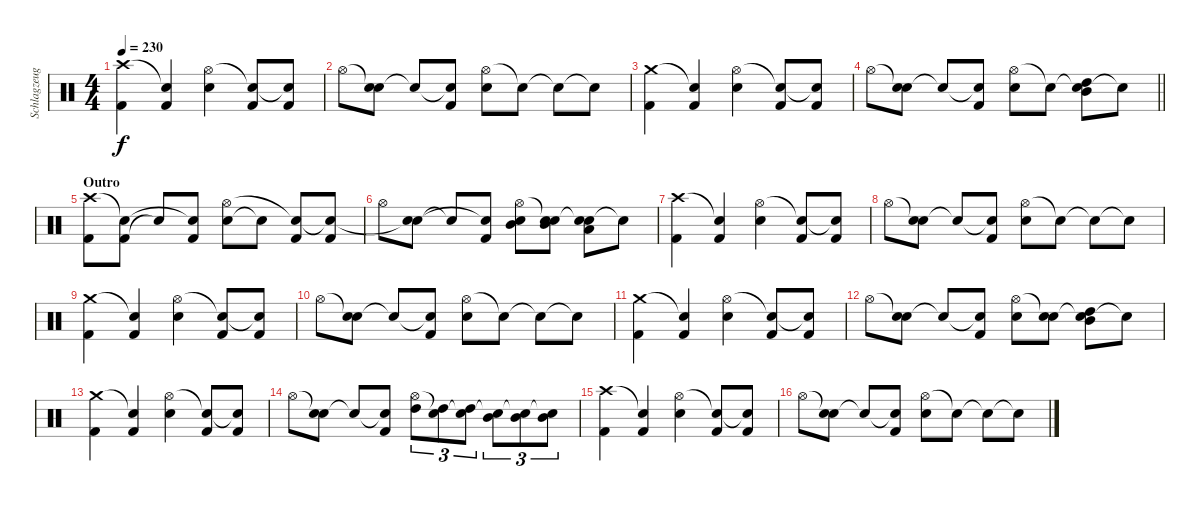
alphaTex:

\track ("Schlagzeug" "Schlagzeug") {instrument percussion}
\staff {score}
\articulation defaults
\ts (4 4)
\tempo 230
\clef neutral
\ks c
("Crash high (hit)" "Kick (hit) 2").4{dy f} ("Snare (hit)"{t} "Kick (hit) 2").4 ("Hi-Hat (open)" "Snare (hit) 2").4 ("Snare (hit)"{t} "Kick (hit) 2").8 ("Snare (hit)"{t} "Kick (hit) 2").8 |
"Hi-Hat (open)".8 ("Snare (hit)"{t} "Snare (hit) 2").8 "Snare (hit)"{t}.8 ("Snare (hit)"{t} "Kick (hit) 2").8 ("Hi-Hat (open)" "Snare (hit) 2").8 "Snare (hit)"{t}.8 "Snare (hit)"{t}.8 "Snare (hit)"{t}.8 |
("Crash medium (hit)" "Kick (hit) 2").4 ("Snare (hit)"{t} "Kick (hit) 2").4 ("Hi-Hat (open)" "Snare (hit) 2").4 ("Snare (hit)"{t} "Kick (hit) 2").8 ("Snare (hit)"{t} "Kick (hit) 2").8 |
\barLineRight lightlight "Hi-Hat (open)".8
("Snare (hit)"{t} "Snare (hit) 2").8 "Snare (hit)"{t}.8 ("Snare (hit)"{t} "Kick (hit) 2").8 ("Hi-Hat (open)" "Snare (hit) 2").8 "Snare (hit)"{t}.8 ("Snare (hit)"{t} "Mid Tom (hit)" "High Tom (hit)").8 "Snare (hit)"{t}.8 |
\section ("" "Outro")
("Kick (hit) 2" "Crash high (hit)").8 ("Kick (hit) 2" "Snare (hit)"{t}).8 "Snare (hit)"{t}.8 ("Kick (hit) 2" "Snare (hit)"{t}).8 ("Snare (hit) 2" "Hi-Hat (open)").8 "Snare (hit)"{t}.8 ("Kick (hit) 2" "Snare (hit)"{t}).8 ("Kick (hit) 2" "Snare (hit)"{t}).8 |
"Hi-Hat (open)".8 ("Snare (hit) 2" "Snare (hit)"{t}).8 "Snare (hit)"{t}.8 ("Kick (hit) 2" "Snare (hit)"{t}).8 ("Snare (hit) 2" "Mid Tom (hit)" "Hi-Hat (open)").8 ("Snare (hit) 2" "Mid Tom (hit)" "Snare (hit)"{t}).8 ("Snare (hit) 2" "Low Tom (hit)" "Snare (hit)"{t}).8 "Snare (hit)"{t}.8 |
("Crash high (hit)" "Kick (hit) 2").4 ("Snare (hit)"{t} "Kick (hit) 2").4 ("Hi-Hat (open)" "Snare (hit) 2").4 ("Snare (hit)"{t} "Kick (hit) 2").8 ("Snare (hit)"{t} "Kick (hit) 2").8 |
"Hi-Hat (open)".8 ("Snare (hit)"{t} "Snare (hit) 2").8 "Snare (hit)"{t}.8 ("Snare (hit)"{t} "Kick (hit) 2").8 ("Hi-Hat (open)" "Snare (hit) 2").8 "Snare (hit)"{t}.8 "Snare (hit)"{t}.8 "Snare (hit)"{t}.8 |
("Crash medium (hit)" "Kick (hit) 2").4 ("Snare (hit)"{t} "Kick (hit) 2").4 ("Hi-Hat (open)" "Snare (hit) 2").4 ("Snare (hit)"{t} "Kick (hit) 2").8 ("Snare (hit)"{t} "Kick (hit) 2").8 |
"Hi-Hat (open)".8 ("Snare (hit)"{t} "Snare (hit) 2").8 "Snare (hit)"{t}.8 ("Snare (hit)"{t} "Kick (hit) 2").8 ("Hi-Hat (open)" "Snare (hit) 2").8 "Snare (hit)"{t}.8 "Snare (hit)"{t}.8 "Snare (hit)"{t}.8 |
("Crash medium (hit)" "Kick (hit) 2").4 ("Snare (hit)"{t} "Kick (hit) 2").4 ("Hi-Hat (open)" "Snare (hit) 2").4 ("Snare (hit)"{t} "Kick (hit) 2").8 ("Snare (hit)"{t} "Kick (hit) 2").8 |
"Hi-Hat (open)".8 ("Snare (hit)"{t} "Snare (hit) 2").8 "Snare (hit)"{t}.8 ("Snare (hit)"{t} "Kick (hit) 2").8 ("Hi-Hat (open)" "Snare (hit) 2").8 ("Snare (hit)"{t} "Snare (hit) 2").8 ("Snare (hit)"{t} "Mid Tom (hit)" "High Tom (hit)").8 "Snare (hit)"{t}.8 |
("Crash medium (hit)" "Kick (hit) 2").4 ("Snare (hit)"{t} "Kick (hit) 2").4 ("Hi-Hat (open)" "Snare (hit) 2").4 ("Snare (hit)"{t} "Kick (hit) 2").8 ("Snare (hit)"{t} "Kick (hit) 2").8 |
"Hi-Hat (open)".8 ("Snare (hit)"{t} "Snare (hit) 2").8 "Snare (hit)"{t}.8 ("Snare (hit)"{t} "Kick (hit) 2").8 ("Hi-Hat (open)" "High Tom (hit)").8{tu (3 2)} ("Snare (hit)"{t} "High Tom (hit)").8{tu (3 2)} ("Snare (hit)"{t} "High Tom (hit)").8{tu (3 2)} ("Snare (hit)"{t} "Mid Tom (hit)").8{tu (3 2)} ("Snare (hit)"{t} "Mid Tom (hit)").8{tu (3 2)} ("Snare (hit)"{t} "Mid Tom (hit)").8{tu (3 2)} |
("Crash high (hit)" "Kick (hit) 2").4 ("Snare (hit)"{t} "Kick (hit) 2").4 ("Hi-Hat (open)" "Snare (hit) 2").4 ("Snare (hit)"{t} "Kick (hit) 2").8 ("Snare (hit)"{t} "Kick (hit) 2").8 |
"Hi-Hat (open)".8 ("Snare (hit)"{t} "Snare (hit) 2").8 "Snare (hit)"{t}.8 ("Snare (hit)"{t} "Kick (hit) 2").8 ("Hi-Hat (open)" "Snare (hit) 2").8 "Snare (hit)"{t}.8 "Snare (hit)"{t}.8 "Snare (hit)"{t}.8
